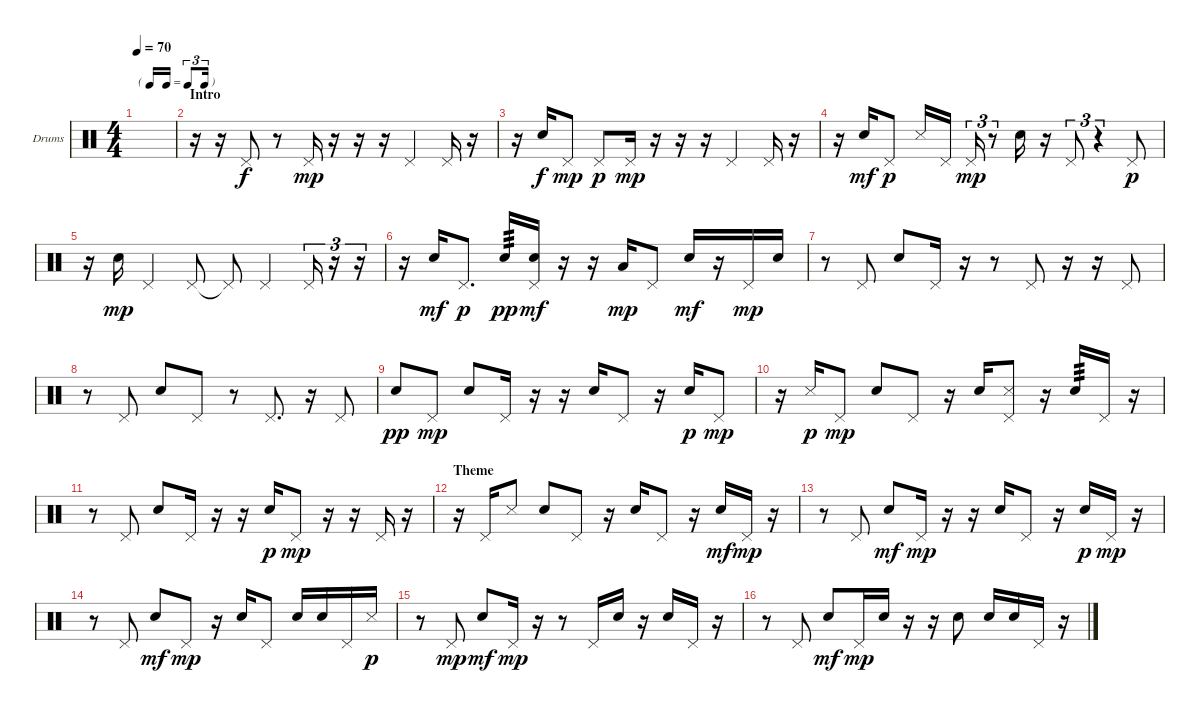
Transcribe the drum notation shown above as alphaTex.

\bracketExtendMode groupsimilarinstruments
\firstSystemTrackNameOrientation horizontal
\otherSystemsTrackNameOrientation horizontal
\track ("Snare" "Drums") {instrument percussion}
\staff {score}
\articulation defaults
\ts (4 4)
\tf triplet16th
\tempo 70
\clef neutral
\ks c
|
\section ("" "Intro")
r.16 r.16 "Pedal Hi-Hat (hit)".8 r.8 "Pedal Hi-Hat (hit)".16{dy mp} r.16 r.16 r.16 "Pedal Hi-Hat (hit)".4 "Pedal Hi-Hat (hit)".16 r.16 |
\ks aminor
r.16 "Snare (hit) 2".16{dy f} "Pedal Hi-Hat (hit)".8{dy mp} "Pedal Hi-Hat (hit)".8{dy p} "Pedal Hi-Hat (hit)".16{dy mp} r.16 r.16 r.16 "Pedal Hi-Hat (hit)".4 "Pedal Hi-Hat (hit)".16 r.16 |
r.16 "Snare (hit) 2".16{dy mf} "Pedal Hi-Hat (hit)".8{dy p} "Snare (side stick) 3".16 "Pedal Hi-Hat (hit)".16 "Pedal Hi-Hat (hit)".16{tu (3 2) dy mp} r.8{tu (3 2)} "Snare (hit) 2".16 r.16 "Pedal Hi-Hat (hit)".8{tu (3 2)} r.4{tu (3 2)} "Pedal Hi-Hat (hit)".8{dy p} |
r.16 "Snare (hit) 2".16{dy mp} "Pedal Hi-Hat (hit)".4 "Pedal Hi-Hat (hit)".8 "Pedal Hi-Hat (hit)"{t}.8 "Pedal Hi-Hat (hit)".4 "Pedal Hi-Hat (hit)".16{tu (3 2)} r.16{tu (3 2)} r.16{tu (3 2)} |
r.16 "Snare (hit) 2".16{dy mf} "Pedal Hi-Hat (hit)".8{d dy p} "Snare (hit) 2".16{tp 3 dy pp} ("Snare (hit) 2" "Pedal Hi-Hat (hit)").16{dy mf} r.16 r.16 "Low Tom (hit)".16{dy mp} "Pedal Hi-Hat (hit)".8 "Snare (hit) 2".16{dy mf} r.16 "Pedal Hi-Hat (hit)".16{dy mp} "Snare (hit) 2".16 |
r.8 "Pedal Hi-Hat (hit)".8 "Snare (hit) 2".8 "Pedal Hi-Hat (hit)".16 r.16 r.8 "Pedal Hi-Hat (hit)".8 r.16 r.16 "Pedal Hi-Hat (hit)".8 |
r.8 "Pedal Hi-Hat (hit)".8 "Snare (hit) 2".8 "Pedal Hi-Hat (hit)".8 r.8 "Pedal Hi-Hat (hit)".8{d} r.16 "Pedal Hi-Hat (hit)".8 |
"Snare (hit) 2".8{dy pp} "Pedal Hi-Hat (hit)".8{dy mp} "Snare (hit) 2".8 "Pedal Hi-Hat (hit)".16 r.16 r.16 "Snare (hit) 2".16 "Pedal Hi-Hat (hit)".8 r.16 "Snare (hit) 2".16{dy p} "Pedal Hi-Hat (hit)".8{dy mp} |
r.16 "Snare (side stick) 3".16{dy p} "Pedal Hi-Hat (hit)".8{dy mp} "Snare (hit) 2".8 "Pedal Hi-Hat (hit)".8 r.16 "Snare (hit) 2".16 ("Pedal Hi-Hat (hit)" "Snare (side stick) 3").8 r.16 "Snare (hit) 2".16{tp 3} "Pedal Hi-Hat (hit)".16 r.16 |
r.8 "Pedal Hi-Hat (hit)".8 "Snare (hit) 2".8 "Pedal Hi-Hat (hit)".16 r.16 r.16 "Snare (hit) 2".16{dy p} "Pedal Hi-Hat (hit)".8{dy mp} r.16 r.16 "Pedal Hi-Hat (hit)".16 r.16 |
\section ("" "Theme")
r.16 "Pedal Hi-Hat (hit)".16 "Snare (side stick) 3".8 "Snare (hit) 2".8 "Pedal Hi-Hat (hit)".8 r.16 "Snare (hit) 2".16 "Pedal Hi-Hat (hit)".8 r.16 "Snare (hit) 2".16{dy mf} "Pedal Hi-Hat (hit)".16{dy mp} r.16 |
r.8 "Pedal Hi-Hat (hit)".8 "Snare (hit) 2".8{dy mf} "Pedal Hi-Hat (hit)".16{dy mp} r.16 r.16 "Snare (hit) 2".16 "Pedal Hi-Hat (hit)".8 r.16 "Snare (hit) 2".16{dy p} "Pedal Hi-Hat (hit)".16{dy mp} r.16 |
r.8 "Pedal Hi-Hat (hit)".8 "Snare (hit) 2".8{dy mf} "Pedal Hi-Hat (hit)".8{dy mp} r.16 "Snare (hit) 2".16 "Pedal Hi-Hat (hit)".8 "Snare (hit) 2".16 "Snare (hit) 2".16 "Pedal Hi-Hat (hit)".16 "Snare (side stick) 3".16{dy p} |
r.8 "Pedal Hi-Hat (hit)".8{dy mp} "Snare (hit) 2".8{dy mf} "Pedal Hi-Hat (hit)".16{dy mp} r.16 r.8 "Pedal Hi-Hat (hit)".16 "Snare (hit) 2".16 r.16 "Snare (hit) 2".16 "Pedal Hi-Hat (hit)".16 r.16 |
r.8 "Pedal Hi-Hat (hit)".8 "Snare (hit) 2".8{dy mf} "Pedal Hi-Hat (hit)".16{dy mp} "Snare (hit) 2".16 r.16 r.16 "Snare (hit) 2".8 "Snare (hit) 2".16 "Snare (hit) 2".16 "Pedal Hi-Hat (hit)".16 r.16
